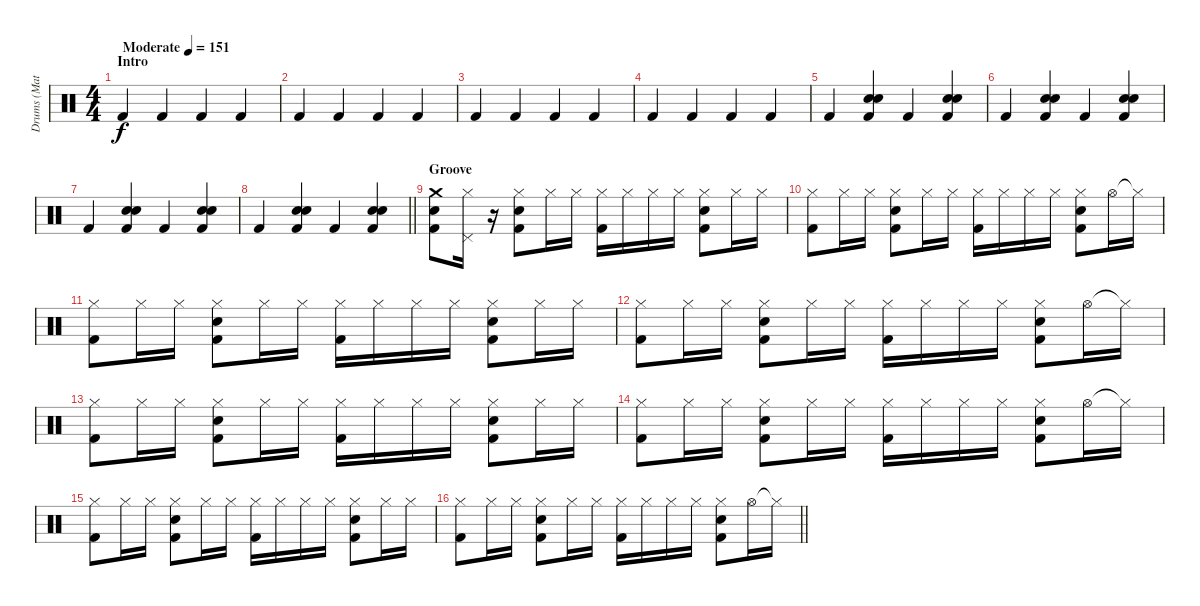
\track ("Drums (Matt Tong)" "Drums (Mat") {instrument percussion}
\staff {score}
\articulation defaults
\ts (4 4)
\section ("" "Intro")
\tempo (151 "Moderate")
\clef neutral
\ks c "Kick (hit) 2".4{dy f volume 4} "Kick (hit) 2".4 "Kick (hit) 2".4 "Kick (hit) 2".4
|
"Kick (hit) 2".4 "Kick (hit) 2".4 "Kick (hit) 2".4 "Kick (hit) 2".4 |
"Kick (hit) 2".4 "Kick (hit) 2".4 "Kick (hit) 2".4 "Kick (hit) 2".4 |
"Kick (hit) 2".4 "Kick (hit) 2".4 "Kick (hit) 2".4 "Kick (hit) 2".4 |
"Kick (hit) 2".4{volume 9} ("Electric Snare (hit)" "Kick (hit) 2" "Snare (hit) 2").4 "Kick (hit) 2".4 ("Electric Snare (hit)" "Kick (hit) 2" "Snare (hit) 2").4 |
"Kick (hit) 2".4 ("Electric Snare (hit)" "Kick (hit) 2" "Snare (hit) 2").4 "Kick (hit) 2".4 ("Electric Snare (hit)" "Kick (hit) 2" "Snare (hit) 2").4 |
"Kick (hit) 2".4 ("Electric Snare (hit)" "Kick (hit) 2" "Snare (hit) 2").4 "Kick (hit) 2".4 ("Electric Snare (hit)" "Kick (hit) 2" "Snare (hit) 2").4 |
\barLineRight lightlight "Kick (hit) 2".4
("Electric Snare (hit)" "Kick (hit) 2" "Snare (hit) 2").4 "Kick (hit) 2".4 ("Electric Snare (hit)" "Kick (hit) 2" "Snare (hit) 2").4 |
\section ("" "Groove")
("Crash medium (hit)" "Kick (hit) 2" "Snare (hit) 2").8{volume 12} ("Hi-Hat (closed)" "Pedal Hi-Hat (hit)").16 r.16 ("Hi-Hat (closed)" "Electric Snare (hit)" "Kick (hit) 2").8 "Hi-Hat (closed)".16 "Hi-Hat (closed)".16 ("Hi-Hat (closed)" "Kick (hit) 2").16 "Hi-Hat (closed)".16 "Hi-Hat (closed)".16 "Hi-Hat (closed)".16 ("Hi-Hat (closed)" "Electric Snare (hit)" "Kick (hit) 2").8 "Hi-Hat (closed)".16 "Hi-Hat (closed)".16 |
("Hi-Hat (closed)" "Kick (hit) 2").8 "Hi-Hat (closed)".16 "Hi-Hat (closed)".16 ("Hi-Hat (closed)" "Electric Snare (hit)" "Kick (hit) 2").8 "Hi-Hat (closed)".16 "Hi-Hat (closed)".16 ("Hi-Hat (closed)" "Kick (hit) 2").16 "Hi-Hat (closed)".16 "Hi-Hat (closed)".16 "Hi-Hat (closed)".16 ("Hi-Hat (closed)" "Electric Snare (hit)" "Kick (hit) 2").8 "Hi-Hat (open)".16 "Hi-Hat (closed)"{t}.16 |
("Hi-Hat (closed)" "Kick (hit) 2").8 "Hi-Hat (closed)".16 "Hi-Hat (closed)".16 ("Hi-Hat (closed)" "Electric Snare (hit)" "Kick (hit) 2").8 "Hi-Hat (closed)".16 "Hi-Hat (closed)".16 ("Hi-Hat (closed)" "Kick (hit) 2").16 "Hi-Hat (closed)".16 "Hi-Hat (closed)".16 "Hi-Hat (closed)".16 ("Hi-Hat (closed)" "Electric Snare (hit)" "Kick (hit) 2").8 "Hi-Hat (closed)".16 "Hi-Hat (closed)".16 |
("Hi-Hat (closed)" "Kick (hit) 2").8 "Hi-Hat (closed)".16 "Hi-Hat (closed)".16 ("Hi-Hat (closed)" "Electric Snare (hit)" "Kick (hit) 2").8 "Hi-Hat (closed)".16 "Hi-Hat (closed)".16 ("Hi-Hat (closed)" "Kick (hit) 2").16 "Hi-Hat (closed)".16 "Hi-Hat (closed)".16 "Hi-Hat (closed)".16 ("Hi-Hat (closed)" "Electric Snare (hit)" "Kick (hit) 2").8 "Hi-Hat (open)".16 "Hi-Hat (closed)"{t}.16 |
("Hi-Hat (closed)" "Kick (hit) 2").8 "Hi-Hat (closed)".16 "Hi-Hat (closed)".16 ("Hi-Hat (closed)" "Electric Snare (hit)" "Kick (hit) 2").8 "Hi-Hat (closed)".16 "Hi-Hat (closed)".16 ("Hi-Hat (closed)" "Kick (hit) 2").16 "Hi-Hat (closed)".16 "Hi-Hat (closed)".16 "Hi-Hat (closed)".16 ("Hi-Hat (closed)" "Electric Snare (hit)" "Kick (hit) 2").8 "Hi-Hat (closed)".16 "Hi-Hat (closed)".16 |
("Hi-Hat (closed)" "Kick (hit) 2").8 "Hi-Hat (closed)".16 "Hi-Hat (closed)".16 ("Hi-Hat (closed)" "Electric Snare (hit)" "Kick (hit) 2").8 "Hi-Hat (closed)".16 "Hi-Hat (closed)".16 ("Hi-Hat (closed)" "Kick (hit) 2").16 "Hi-Hat (closed)".16 "Hi-Hat (closed)".16 "Hi-Hat (closed)".16 ("Hi-Hat (closed)" "Electric Snare (hit)" "Kick (hit) 2").8 "Hi-Hat (open)".16 "Hi-Hat (closed)"{t}.16 |
("Hi-Hat (closed)" "Kick (hit) 2").8 "Hi-Hat (closed)".16 "Hi-Hat (closed)".16 ("Hi-Hat (closed)" "Electric Snare (hit)" "Kick (hit) 2").8 "Hi-Hat (closed)".16 "Hi-Hat (closed)".16 ("Hi-Hat (closed)" "Kick (hit) 2").16 "Hi-Hat (closed)".16 "Hi-Hat (closed)".16 "Hi-Hat (closed)".16 ("Hi-Hat (closed)" "Electric Snare (hit)" "Kick (hit) 2").8 "Hi-Hat (closed)".16 "Hi-Hat (closed)".16 |
\barLineRight lightlight
("Hi-Hat (closed)" "Kick (hit) 2").8 "Hi-Hat (closed)".16 "Hi-Hat (closed)".16 ("Hi-Hat (closed)" "Electric Snare (hit)" "Kick (hit) 2").8 "Hi-Hat (closed)".16 "Hi-Hat (closed)".16 ("Hi-Hat (closed)" "Kick (hit) 2").16 "Hi-Hat (closed)".16 "Hi-Hat (closed)".16 "Hi-Hat (closed)".16 ("Hi-Hat (closed)" "Electric Snare (hit)" "Kick (hit) 2").8 "Hi-Hat (open)".16 "Hi-Hat (closed)"{t}.16
